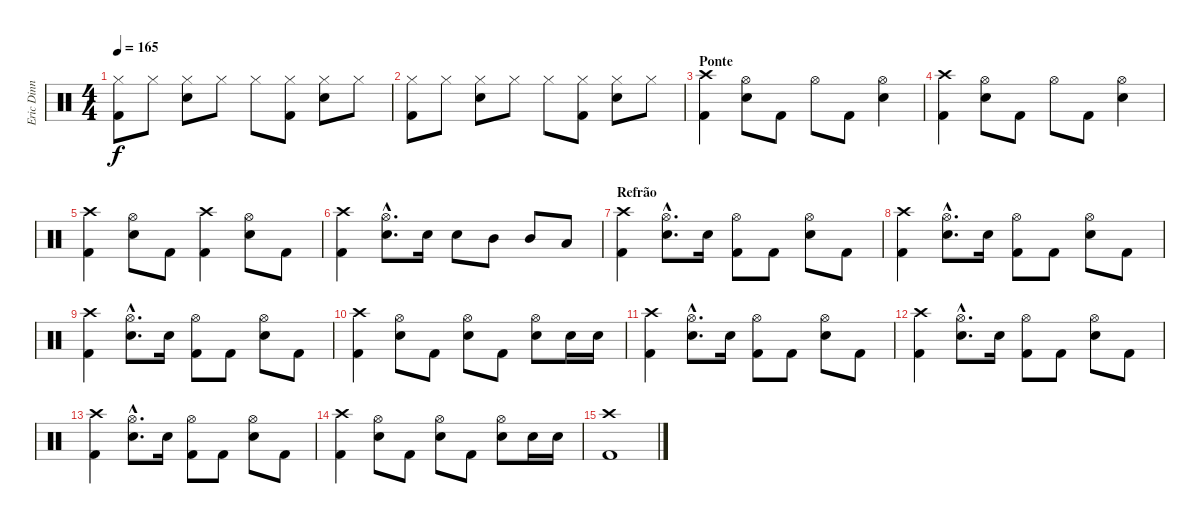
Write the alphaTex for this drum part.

\track ("Eric Dinn" "Eric Dinn") {instrument percussion}
\staff {score}
\articulation defaults
\ts (4 4)
\tempo 165
\clef neutral
\ks c
("Hi-Hat (closed)" "Kick (hit) 2").8{dy f} "Hi-Hat (closed)".8 ("Hi-Hat (closed)" "Snare (hit) 2").8 "Hi-Hat (closed)".8 "Hi-Hat (closed)".8 ("Hi-Hat (closed)" "Kick (hit) 2").8 ("Hi-Hat (closed)" "Snare (hit) 2").8 "Hi-Hat (closed)".8 |
("Hi-Hat (closed)" "Kick (hit) 2").8 "Hi-Hat (closed)".8 ("Hi-Hat (closed)" "Snare (hit) 2").8 "Hi-Hat (closed)".8 "Hi-Hat (closed)".8 ("Hi-Hat (closed)" "Kick (hit) 2").8 ("Hi-Hat (closed)" "Snare (hit) 2").8 "Hi-Hat (closed)".8 |
\section ("" "Ponte")
("Crash high (hit)" "Kick (hit) 2").4 ("Hi-Hat (open)" "Snare (hit) 2").8 "Kick (hit) 2".8 "Hi-Hat (open)".8 "Kick (hit) 2".8 ("Hi-Hat (open)" "Snare (hit) 2").4 |
("Crash high (hit)" "Kick (hit) 2").4 ("Hi-Hat (open)" "Snare (hit) 2").8 "Kick (hit) 2".8 "Hi-Hat (open)".8 "Kick (hit) 2".8 ("Hi-Hat (open)" "Snare (hit) 2").4 |
("Crash high (hit)" "Kick (hit) 2").4 ("Hi-Hat (open)" "Snare (hit) 2").8 "Kick (hit) 2".8 ("Crash high (hit)" "Kick (hit) 2").4 ("Hi-Hat (open)" "Snare (hit) 2").8 "Kick (hit) 2".8 |
("Crash high (hit)" "Kick (hit) 2").4 ("Hi-Hat (open)"{hac} "Snare (hit) 2"{hac}).8{d} "Snare (hit) 2".16 "Snare (hit) 2".8 "Mid Tom (hit)".8 "Mid Tom (hit)".8 "Low Tom (hit)".8 |
\section ("" "Refrão")
("Crash high (hit)" "Kick (hit) 2").4 ("Hi-Hat (open)"{hac} "Snare (hit) 2"{hac}).8{d} "Snare (hit) 2".16 ("Hi-Hat (open)" "Kick (hit) 2").8 "Kick (hit) 2".8 ("Hi-Hat (open)" "Snare (hit) 2").8 "Kick (hit) 2".8 |
("Crash high (hit)" "Kick (hit) 2").4 ("Hi-Hat (open)"{hac} "Snare (hit) 2"{hac}).8{d} "Snare (hit) 2".16 ("Hi-Hat (open)" "Kick (hit) 2").8 "Kick (hit) 2".8 ("Hi-Hat (open)" "Snare (hit) 2").8 "Kick (hit) 2".8 |
("Crash high (hit)" "Kick (hit) 2").4 ("Hi-Hat (open)"{hac} "Snare (hit) 2"{hac}).8{d} "Snare (hit) 2".16 ("Hi-Hat (open)" "Kick (hit) 2").8 "Kick (hit) 2".8 ("Hi-Hat (open)" "Snare (hit) 2").8 "Kick (hit) 2".8 |
("Crash high (hit)" "Kick (hit) 2").4 ("Hi-Hat (open)" "Snare (hit) 2").8 "Kick (hit) 2".8 ("Hi-Hat (open)" "Snare (hit) 2").8 "Kick (hit) 2".8 ("Hi-Hat (open)" "Snare (hit) 2").8 "Snare (hit) 2".16 "Snare (hit) 2".16 |
("Crash high (hit)" "Kick (hit) 2").4 ("Hi-Hat (open)"{hac} "Snare (hit) 2"{hac}).8{d} "Snare (hit) 2".16 ("Hi-Hat (open)" "Kick (hit) 2").8 "Kick (hit) 2".8 ("Hi-Hat (open)" "Snare (hit) 2").8 "Kick (hit) 2".8 |
("Crash high (hit)" "Kick (hit) 2").4 ("Hi-Hat (open)"{hac} "Snare (hit) 2"{hac}).8{d} "Snare (hit) 2".16 ("Hi-Hat (open)" "Kick (hit) 2").8 "Kick (hit) 2".8 ("Hi-Hat (open)" "Snare (hit) 2").8 "Kick (hit) 2".8 |
("Crash high (hit)" "Kick (hit) 2").4 ("Hi-Hat (open)"{hac} "Snare (hit) 2"{hac}).8{d} "Snare (hit) 2".16 ("Hi-Hat (open)" "Kick (hit) 2").8 "Kick (hit) 2".8 ("Hi-Hat (open)" "Snare (hit) 2").8 "Kick (hit) 2".8 |
("Crash high (hit)" "Kick (hit) 2").4 ("Hi-Hat (open)" "Snare (hit) 2").8 "Kick (hit) 2".8 ("Hi-Hat (open)" "Snare (hit) 2").8 "Kick (hit) 2".8 ("Hi-Hat (open)" "Snare (hit) 2").8 "Snare (hit) 2".16 "Snare (hit) 2".16 |
("Crash high (hit)" "Kick (hit) 2").1
